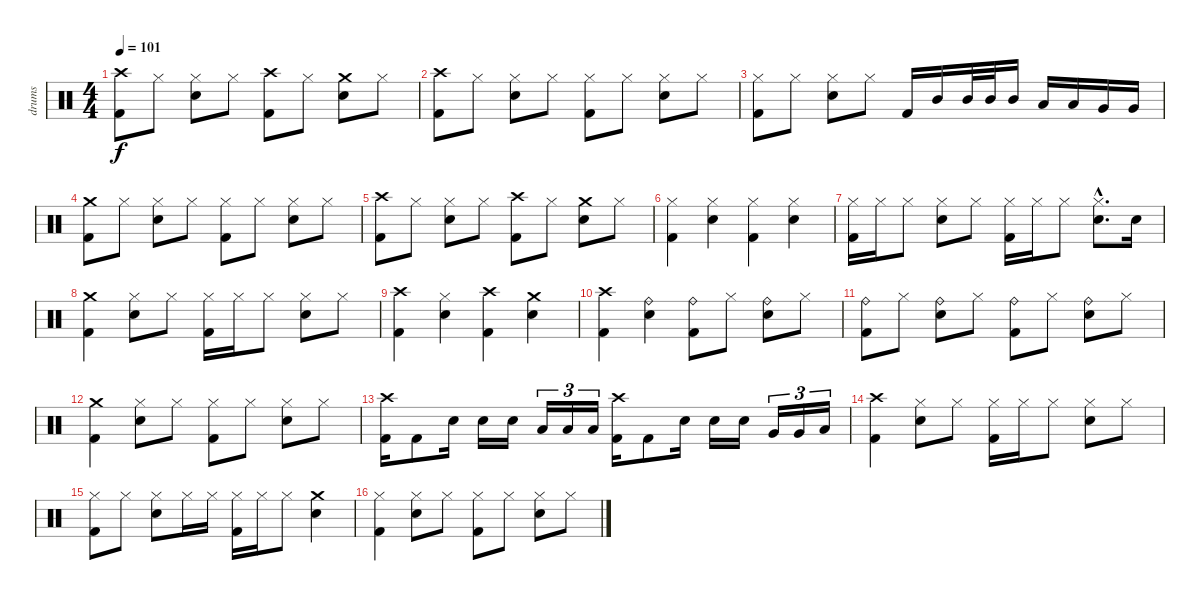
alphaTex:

\track ("drums" "drums") {instrument percussion}
\staff {score}
\articulation defaults
\ts (4 4)
\tempo 101
\clef neutral
\ks c
("Crash high (hit)" "Kick (hit) 2").8{dy f} "Hi-Hat (closed)".8 ("Hi-Hat (closed)" "Electric Snare (hit)").8 "Hi-Hat (closed)".8 ("Crash high (hit)" "Kick (hit) 2").8 "Hi-Hat (closed)".8 ("Crash medium (hit)" "Electric Snare (hit)").8 "Hi-Hat (closed)".8 |
("Crash high (hit)" "Kick (hit) 2").8 "Hi-Hat (closed)".8 ("Hi-Hat (closed)" "Electric Snare (hit)").8 "Hi-Hat (closed)".8 ("Hi-Hat (closed)" "Kick (hit) 2").8 "Hi-Hat (closed)".8 ("Hi-Hat (closed)" "Electric Snare (hit)").8 "Hi-Hat (closed)".8 |
("Hi-Hat (closed)" "Kick (hit) 2").8 "Hi-Hat (closed)".8 ("Hi-Hat (closed)" "Electric Snare (hit)").8 "Hi-Hat (closed)".8 "Kick (hit) 2".16 "Mid Tom (hit)".16 "Mid Tom (hit)".32 "Mid Tom (hit)".32 "Mid Tom (hit)".16 "Low Tom (hit)".16 "Low Tom (hit)".16 "Very Low Tom (hit)".16 "Very Low Tom (hit)".16 |
("Crash medium (hit)" "Kick (hit) 2").8 "Hi-Hat (closed)".8 ("Hi-Hat (closed)" "Electric Snare (hit)").8 "Hi-Hat (closed)".8 ("Hi-Hat (closed)" "Kick (hit) 2").8 "Hi-Hat (closed)".8 ("Hi-Hat (closed)" "Electric Snare (hit)").8 "Hi-Hat (closed)".8 |
("Crash high (hit)" "Kick (hit) 2").8 "Hi-Hat (closed)".8 ("Hi-Hat (closed)" "Electric Snare (hit)").8 "Hi-Hat (closed)".8 ("Crash high (hit)" "Kick (hit) 2").8 "Hi-Hat (closed)".8 ("Crash medium (hit)" "Electric Snare (hit)").8 "Hi-Hat (closed)".8 |
("Hi-Hat (closed)" "Kick (hit) 2").4 ("Hi-Hat (closed)" "Electric Snare (hit)").4 ("Hi-Hat (closed)" "Kick (hit) 2").4 ("Hi-Hat (closed)" "Electric Snare (hit)").4 |
("Hi-Hat (closed)" "Kick (hit) 2").16 "Hi-Hat (closed)".16 "Hi-Hat (closed)".8 ("Hi-Hat (closed)" "Electric Snare (hit)").8 "Hi-Hat (closed)".8 ("Hi-Hat (closed)" "Kick (hit) 2").16 "Hi-Hat (closed)".16 "Hi-Hat (closed)".8 ("Hi-Hat (closed)"{hac} "Electric Snare (hit)"{hac}).8{d} "Electric Snare (hit)".16 |
("Crash medium (hit)" "Kick (hit) 2").4 ("Hi-Hat (closed)" "Electric Snare (hit)").8 "Hi-Hat (closed)".8 ("Hi-Hat (closed)" "Kick (hit) 2").16 "Hi-Hat (closed)".16 "Hi-Hat (closed)".8 ("Hi-Hat (closed)" "Electric Snare (hit)").8 "Hi-Hat (closed)".8 |
("Crash high (hit)" "Kick (hit) 2").4 ("Hi-Hat (closed)" "Electric Snare (hit)").4 ("Crash high (hit)" "Kick (hit) 2").4 ("Crash medium (hit)" "Electric Snare (hit)").4 |
("Crash high (hit)" "Kick (hit) 2").4 ("Ride (bell)" "Electric Snare (hit)").4 ("Ride (bell)" "Kick (hit) 2").8 "Hi-Hat (closed)".8 ("Ride (bell)" "Electric Snare (hit)").8 "Hi-Hat (closed)".8 |
("Ride (bell)" "Kick (hit) 2").8 "Hi-Hat (closed)".8 ("Ride (bell)" "Electric Snare (hit)").8 "Hi-Hat (closed)".8 ("Ride (bell)" "Kick (hit) 2").8 "Hi-Hat (closed)".8 ("Ride (bell)" "Electric Snare (hit)").8 "Hi-Hat (closed)".8 |
("Crash medium (hit)" "Kick (hit) 2").4 ("Hi-Hat (closed)" "Electric Snare (hit)").8 "Hi-Hat (closed)".8 ("Hi-Hat (closed)" "Kick (hit) 2").8 "Hi-Hat (closed)".8 ("Hi-Hat (closed)" "Electric Snare (hit)").8 "Hi-Hat (closed)".8 |
("Crash high (hit)" "Kick (hit) 2").16 "Kick (hit) 2".8 "Electric Snare (hit)".16 "Electric Snare (hit)".16 "Electric Snare (hit)".16 "Low Tom (hit)".16{tu (3 2)} "Low Tom (hit)".16{tu (3 2)} "Low Tom (hit)".16{tu (3 2)} ("Crash high (hit)" "Kick (hit) 2").16 "Kick (hit) 2".8 "Electric Snare (hit)".16 "Electric Snare (hit)".16 "Electric Snare (hit)".16 "Very Low Tom (hit)".16{tu (3 2)} "Very Low Tom (hit)".16{tu (3 2)} "Low Floor Tom (hit)".16{tu (3 2)} |
("Crash high (hit)" "Kick (hit) 2").4 ("Hi-Hat (closed)" "Electric Snare (hit)").8 "Hi-Hat (closed)".8 ("Hi-Hat (closed)" "Kick (hit) 2").16 "Hi-Hat (closed)".16 "Hi-Hat (closed)".8 ("Hi-Hat (closed)" "Electric Snare (hit)").8 "Hi-Hat (closed)".8 |
("Hi-Hat (closed)" "Kick (hit) 2").8 "Hi-Hat (closed)".8 ("Hi-Hat (closed)" "Electric Snare (hit)").8 "Hi-Hat (closed)".16 "Hi-Hat (closed)".16 ("Hi-Hat (closed)" "Kick (hit) 2").16 "Hi-Hat (closed)".16 "Hi-Hat (closed)".8 ("Crash medium (hit)" "Electric Snare (hit)").4 |
("Hi-Hat (closed)" "Kick (hit) 2").4 ("Hi-Hat (closed)" "Electric Snare (hit)").8 "Hi-Hat (closed)".8 ("Hi-Hat (closed)" "Kick (hit) 2").8 "Hi-Hat (closed)".8 ("Hi-Hat (closed)" "Electric Snare (hit)").8 "Hi-Hat (closed)".8
